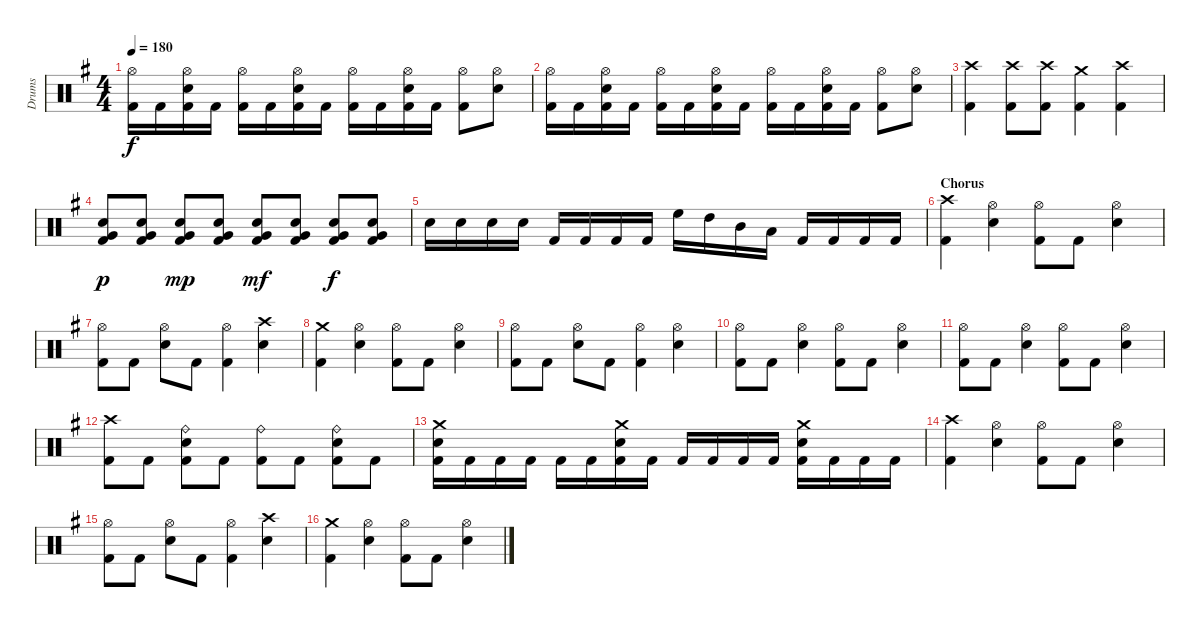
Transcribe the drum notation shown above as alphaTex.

\track ("Drums" "Drums") {instrument percussion}
\staff {score}
\articulation defaults
\ts (4 4)
\tempo 180
\clef neutral
\ks eminor
("Kick (hit) 2" "Hi-Hat (open)").16{dy f} "Kick (hit) 2".16 ("Kick (hit) 2" "Electric Snare (hit)" "Hi-Hat (open)").16 "Kick (hit) 2".16 ("Kick (hit) 2" "Hi-Hat (open)").16 "Kick (hit) 2".16 ("Kick (hit) 2" "Electric Snare (hit)" "Hi-Hat (open)").16 "Kick (hit) 2".16 ("Kick (hit) 2" "Hi-Hat (open)").16 "Kick (hit) 2".16 ("Kick (hit) 2" "Electric Snare (hit)" "Hi-Hat (open)").16 "Kick (hit) 2".16 ("Kick (hit) 2" "Hi-Hat (open)").8 ("Electric Snare (hit)" "Hi-Hat (open)").8 |
("Kick (hit) 2" "Hi-Hat (open)").16 "Kick (hit) 2".16 ("Kick (hit) 2" "Electric Snare (hit)" "Hi-Hat (open)").16 "Kick (hit) 2".16 ("Kick (hit) 2" "Hi-Hat (open)").16 "Kick (hit) 2".16 ("Kick (hit) 2" "Electric Snare (hit)" "Hi-Hat (open)").16 "Kick (hit) 2".16 ("Kick (hit) 2" "Hi-Hat (open)").16 "Kick (hit) 2".16 ("Kick (hit) 2" "Electric Snare (hit)" "Hi-Hat (open)").16 "Kick (hit) 2".16 ("Kick (hit) 2" "Hi-Hat (open)").8 ("Electric Snare (hit)" "Hi-Hat (open)").8 |
("Kick (hit) 2" "Crash high (hit)").4 ("Kick (hit) 2" "Crash high (hit)").8 ("Kick (hit) 2" "Crash high (hit)").8 ("Kick (hit) 2" "Crash medium (hit)").4 ("Kick (hit) 2" "Crash high (hit)").4 |
("Kick (hit) 2" "Electric Snare (hit)" "Very Low Tom (hit)").8{dy p} ("Kick (hit) 2" "Electric Snare (hit)" "Very Low Tom (hit)").8 ("Kick (hit) 2" "Electric Snare (hit)" "Very Low Tom (hit)").8{dy mp} ("Kick (hit) 2" "Electric Snare (hit)" "Very Low Tom (hit)").8 ("Kick (hit) 2" "Electric Snare (hit)" "Very Low Tom (hit)").8{dy mf} ("Kick (hit) 2" "Electric Snare (hit)" "Very Low Tom (hit)").8 ("Kick (hit) 2" "Electric Snare (hit)" "Very Low Tom (hit)").8{dy f} ("Kick (hit) 2" "Electric Snare (hit)" "Very Low Tom (hit)").8 |
"Electric Snare (hit)".16 "Electric Snare (hit)".16 "Electric Snare (hit)".16 "Electric Snare (hit)".16 "Kick (hit) 2".16 "Kick (hit) 2".16 "Kick (hit) 2".16 "Kick (hit) 2".16 "High Floor Tom (hit)".16 "High Tom (hit)".16 "Mid Tom (hit)".16 "Low Tom (hit)".16 "Kick (hit) 2".16 "Kick (hit) 2".16 "Kick (hit) 2".16 "Kick (hit) 2".16 |
\section ("" "Chorus")
("Kick (hit) 2" "Crash high (hit)").4 ("Electric Snare (hit)" "Hi-Hat (open)").4 ("Kick (hit) 2" "Hi-Hat (open)").8 "Kick (hit) 2".8 ("Electric Snare (hit)" "Hi-Hat (open)").4 |
("Kick (hit) 2" "Hi-Hat (open)").8 "Kick (hit) 2".8 ("Electric Snare (hit)" "Hi-Hat (open)").8 "Kick (hit) 2".8 ("Kick (hit) 2" "Hi-Hat (open)").4 ("Electric Snare (hit)" "Crash high (hit)").4 |
("Kick (hit) 2" "Crash medium (hit)").4 ("Electric Snare (hit)" "Hi-Hat (open)").4 ("Kick (hit) 2" "Hi-Hat (open)").8 "Kick (hit) 2".8 ("Electric Snare (hit)" "Hi-Hat (open)").4 |
("Kick (hit) 2" "Hi-Hat (open)").8 "Kick (hit) 2".8 ("Electric Snare (hit)" "Hi-Hat (open)").8 "Kick (hit) 2".8 ("Kick (hit) 2" "Hi-Hat (open)").4 ("Electric Snare (hit)" "Hi-Hat (open)").4 |
("Kick (hit) 2" "Hi-Hat (open)").8 "Kick (hit) 2".8 ("Electric Snare (hit)" "Hi-Hat (open)").4 ("Kick (hit) 2" "Hi-Hat (open)").8 "Kick (hit) 2".8 ("Electric Snare (hit)" "Hi-Hat (open)").4 |
("Kick (hit) 2" "Hi-Hat (open)").8 "Kick (hit) 2".8 ("Electric Snare (hit)" "Hi-Hat (open)").4 ("Kick (hit) 2" "Hi-Hat (open)").8 "Kick (hit) 2".8 ("Electric Snare (hit)" "Hi-Hat (open)").4 |
("Kick (hit) 2" "Crash high (hit)").8 "Kick (hit) 2".8 ("Kick (hit) 2" "Electric Snare (hit)" "Ride (bell)").8 "Kick (hit) 2".8 ("Kick (hit) 2" "Ride (bell)").8 "Kick (hit) 2".8 ("Kick (hit) 2" "Electric Snare (hit)" "Ride (bell)").8 "Kick (hit) 2".8 |
("Kick (hit) 2" "Electric Snare (hit)" "Crash medium (hit)").16 "Kick (hit) 2".16 "Kick (hit) 2".16 "Kick (hit) 2".16 "Kick (hit) 2".16 "Kick (hit) 2".16 ("Kick (hit) 2" "Electric Snare (hit)" "Crash medium (hit)").16 "Kick (hit) 2".16 "Kick (hit) 2".16 "Kick (hit) 2".16 "Kick (hit) 2".16 "Kick (hit) 2".16 ("Kick (hit) 2" "Electric Snare (hit)" "Crash medium (hit)").16 "Kick (hit) 2".16 "Kick (hit) 2".16 "Kick (hit) 2".16 |
("Kick (hit) 2" "Crash high (hit)").4 ("Electric Snare (hit)" "Hi-Hat (open)").4 ("Kick (hit) 2" "Hi-Hat (open)").8 "Kick (hit) 2".8 ("Electric Snare (hit)" "Hi-Hat (open)").4 |
("Kick (hit) 2" "Hi-Hat (open)").8 "Kick (hit) 2".8 ("Electric Snare (hit)" "Hi-Hat (open)").8 "Kick (hit) 2".8 ("Kick (hit) 2" "Hi-Hat (open)").4 ("Electric Snare (hit)" "Crash high (hit)").4 |
("Kick (hit) 2" "Crash medium (hit)").4 ("Electric Snare (hit)" "Hi-Hat (open)").4 ("Kick (hit) 2" "Hi-Hat (open)").8 "Kick (hit) 2".8 ("Electric Snare (hit)" "Hi-Hat (open)").4
